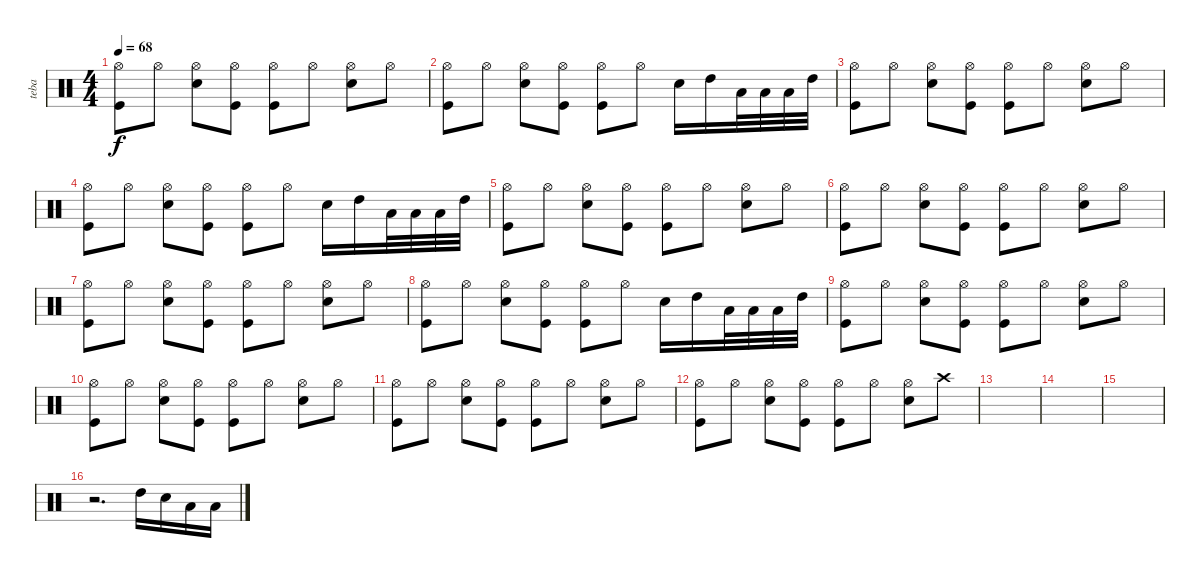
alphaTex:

\track ("teba" "teba") {instrument percussion}
\staff {score}
\articulation defaults
\ts (4 4)
\tempo 68
\clef neutral
\ks c
("Hi-Hat (open)" "Kick (hit)").8{dy f} "Hi-Hat (open)".8 ("Hi-Hat (open)" "Electric Snare (hit)").8 ("Hi-Hat (open)" "Kick (hit)").8 ("Hi-Hat (open)" "Kick (hit)").8 "Hi-Hat (open)".8 ("Hi-Hat (open)" "Electric Snare (hit)").8 "Hi-Hat (open)".8 |
("Hi-Hat (open)" "Kick (hit)").8 "Hi-Hat (open)".8 ("Hi-Hat (open)" "Electric Snare (hit)").8 ("Hi-Hat (open)" "Kick (hit)").8 ("Hi-Hat (open)" "Kick (hit)").8 "Hi-Hat (open)".8 "Electric Snare (hit)".16 "High Tom (hit)".16 "Low Tom (hit)".32 "Low Floor Tom (hit)".32 "Low Floor Tom (hit)".32 "High Tom (hit)".32 |
("Hi-Hat (open)" "Kick (hit)").8 "Hi-Hat (open)".8 ("Hi-Hat (open)" "Electric Snare (hit)").8 ("Hi-Hat (open)" "Kick (hit)").8 ("Hi-Hat (open)" "Kick (hit)").8 "Hi-Hat (open)".8 ("Hi-Hat (open)" "Electric Snare (hit)").8 "Hi-Hat (open)".8 |
("Hi-Hat (open)" "Kick (hit)").8 "Hi-Hat (open)".8 ("Hi-Hat (open)" "Electric Snare (hit)").8 ("Hi-Hat (open)" "Kick (hit)").8 ("Hi-Hat (open)" "Kick (hit)").8 "Hi-Hat (open)".8 "Electric Snare (hit)".16 "High Tom (hit)".16 "Low Tom (hit)".32 "Low Floor Tom (hit)".32 "Low Floor Tom (hit)".32 "High Tom (hit)".32 |
("Hi-Hat (open)" "Kick (hit)").8 "Hi-Hat (open)".8 ("Hi-Hat (open)" "Electric Snare (hit)").8 ("Hi-Hat (open)" "Kick (hit)").8 ("Hi-Hat (open)" "Kick (hit)").8 "Hi-Hat (open)".8 ("Hi-Hat (open)" "Electric Snare (hit)").8 "Hi-Hat (open)".8 |
("Hi-Hat (open)" "Kick (hit)").8 "Hi-Hat (open)".8 ("Hi-Hat (open)" "Electric Snare (hit)").8 ("Hi-Hat (open)" "Kick (hit)").8 ("Hi-Hat (open)" "Kick (hit)").8 "Hi-Hat (open)".8 ("Hi-Hat (open)" "Electric Snare (hit)").8 "Hi-Hat (open)".8 |
("Hi-Hat (open)" "Kick (hit)").8 "Hi-Hat (open)".8 ("Hi-Hat (open)" "Electric Snare (hit)").8 ("Hi-Hat (open)" "Kick (hit)").8 ("Hi-Hat (open)" "Kick (hit)").8 "Hi-Hat (open)".8 ("Hi-Hat (open)" "Electric Snare (hit)").8 "Hi-Hat (open)".8 |
("Hi-Hat (open)" "Kick (hit)").8 "Hi-Hat (open)".8 ("Hi-Hat (open)" "Electric Snare (hit)").8 ("Hi-Hat (open)" "Kick (hit)").8 ("Hi-Hat (open)" "Kick (hit)").8 "Hi-Hat (open)".8 "Electric Snare (hit)".16 "High Tom (hit)".16 "Low Tom (hit)".32 "Low Floor Tom (hit)".32 "Low Floor Tom (hit)".32 "High Tom (hit)".32 |
("Hi-Hat (open)" "Kick (hit)").8 "Hi-Hat (open)".8 ("Hi-Hat (open)" "Electric Snare (hit)").8 ("Hi-Hat (open)" "Kick (hit)").8 ("Hi-Hat (open)" "Kick (hit)").8 "Hi-Hat (open)".8 ("Hi-Hat (open)" "Electric Snare (hit)").8 "Hi-Hat (open)".8 |
("Hi-Hat (open)" "Kick (hit)").8 "Hi-Hat (open)".8 ("Hi-Hat (open)" "Electric Snare (hit)").8 ("Hi-Hat (open)" "Kick (hit)").8 ("Hi-Hat (open)" "Kick (hit)").8 "Hi-Hat (open)".8 ("Hi-Hat (open)" "Electric Snare (hit)").8 "Hi-Hat (open)".8 |
("Hi-Hat (open)" "Kick (hit)").8 "Hi-Hat (open)".8 ("Hi-Hat (open)" "Electric Snare (hit)").8 ("Hi-Hat (open)" "Kick (hit)").8 ("Hi-Hat (open)" "Kick (hit)").8 "Hi-Hat (open)".8 ("Hi-Hat (open)" "Electric Snare (hit)").8 "Hi-Hat (open)".8 |
("Hi-Hat (open)" "Kick (hit)").8 "Hi-Hat (open)".8 ("Hi-Hat (open)" "Electric Snare (hit)").8 ("Hi-Hat (open)" "Kick (hit)").8 ("Hi-Hat (open)" "Kick (hit)").8 "Hi-Hat (open)".8 ("Hi-Hat (open)" "Electric Snare (hit)").8 "Crash high (hit)".8 |
|
|
|
r.2{d} "High Tom (hit)".16 "Snare (hit) 2".16 "Low Tom (hit)".16 "Low Floor Tom (hit)".16
